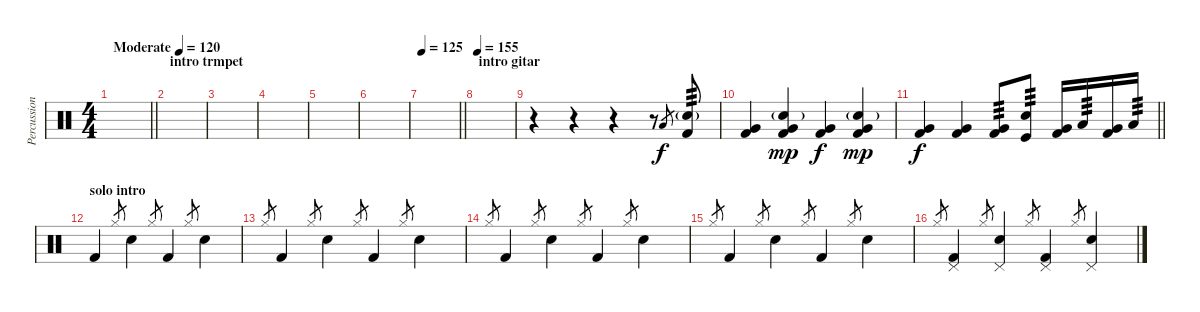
\track ("Percussion" "Percussion") {instrument percussion}
\staff {score}
\articulation defaults
\ts (4 4)
\tempo (120 "Moderate")
\clef neutral
\barLineRight lightlight
\ks c
|
\section ("" "intro trmpet")
|
|
|
|
|
\tempo 125
\barLineRight lightlight
|
\section ("" "intro gitar")
\tempo 155
|
r.4 r.4 r.4 r.8 "Low Tom (hit)".8{gr} ("Snare (hit) 2"{g} "Kick (hit) 2").8{tp 3} |
("Very Low Tom (hit)" "Kick (hit) 2").4{dy f} ("Very Low Tom (hit)" "Snare (hit) 2"{g} "Kick (hit) 2").4{dy mp} ("Very Low Tom (hit)" "Kick (hit) 2").4{dy f} ("Very Low Tom (hit)" "Snare (hit) 2"{g} "Kick (hit) 2").4{dy mp} |
\barLineRight lightlight
("Very Low Tom (hit)" "Kick (hit) 2").4{dy f} ("Very Low Tom (hit)" "Kick (hit) 2").4 ("Very Low Tom (hit)" "Kick (hit) 2").8{tp 3} ("Snare (hit) 2" "Kick (hit)").8{tp 3} ("Very Low Tom (hit)" "Kick (hit) 2").16 "Low Tom (hit)".16{tp 3} ("Very Low Tom (hit)" "Kick (hit) 2").16 "Low Tom (hit)".16{tp 3} |
\section ("" "solo intro")
"Kick (hit) 2".4 "Hi-Hat (closed)".8{gr} "Snare (hit) 2".4 "Hi-Hat (closed)".8{gr} "Kick (hit) 2".4 "Hi-Hat (closed)".8{gr} "Snare (hit) 2".4 |
"Hi-Hat (closed)".8{gr} "Kick (hit) 2".4 "Hi-Hat (closed)".8{gr} "Snare (hit) 2".4 "Hi-Hat (closed)".8{gr} "Kick (hit) 2".4 "Hi-Hat (closed)".8{gr} "Snare (hit) 2".4 |
"Hi-Hat (closed)".8{gr} "Kick (hit) 2".4 "Hi-Hat (closed)".8{gr} "Snare (hit) 2".4 "Hi-Hat (closed)".8{gr} "Kick (hit) 2".4 "Hi-Hat (closed)".8{gr} "Snare (hit) 2".4 |
"Hi-Hat (closed)".8{gr} "Kick (hit) 2".4 "Hi-Hat (closed)".8{gr} "Snare (hit) 2".4 "Hi-Hat (closed)".8{gr} "Kick (hit) 2".4 "Hi-Hat (closed)".8{gr} "Snare (hit) 2".4 |
"Hi-Hat (closed)".8{gr} ("Pedal Hi-Hat (hit)" "Kick (hit) 2").4 "Hi-Hat (closed)".8{gr} ("Pedal Hi-Hat (hit)" "Snare (hit) 2").4 "Hi-Hat (closed)".8{gr} ("Pedal Hi-Hat (hit)" "Kick (hit) 2").4 "Hi-Hat (closed)".8{gr} ("Pedal Hi-Hat (hit)" "Snare (hit) 2").4
